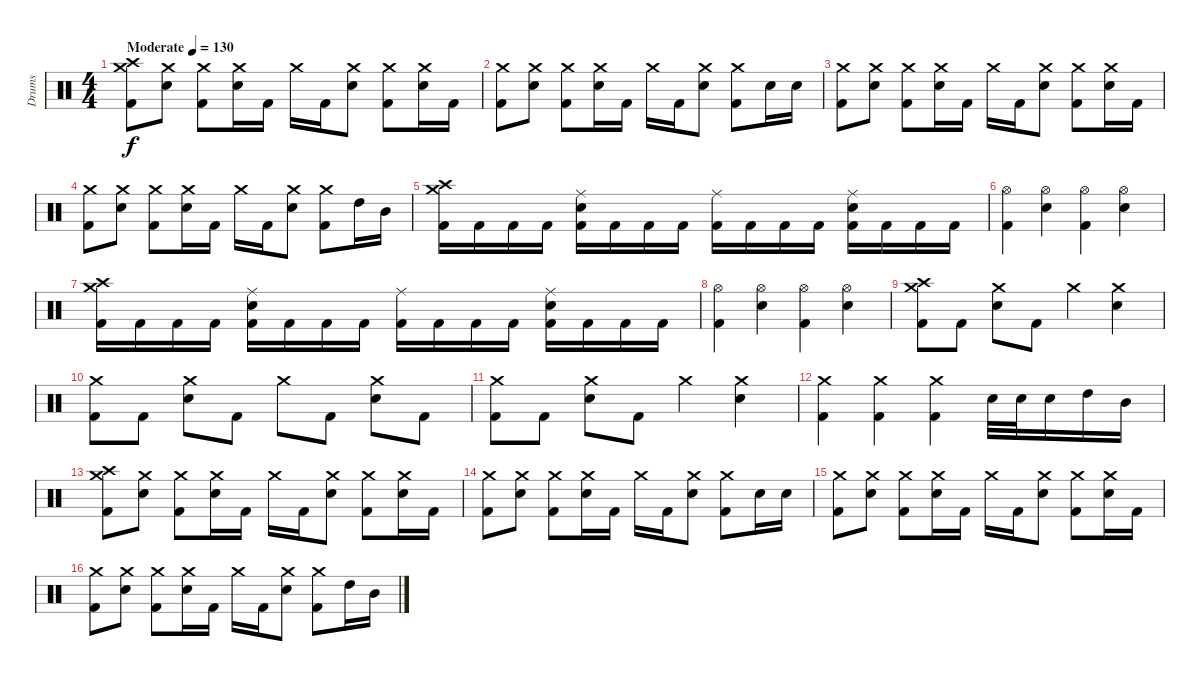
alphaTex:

\track ("Drums" "Drums") {instrument percussion}
\staff {score}
\articulation defaults
\ts (4 4)
\tempo (130 "Moderate")
\clef neutral
\ks c
("Kick (hit) 2" "Crash high (hit)" "Crash medium (hit)").8{dy f} ("Snare (hit) 2" "Crash medium (hit)").8 ("Kick (hit) 2" "Crash medium (hit)").8 ("Snare (hit) 2" "Crash medium (hit)").16 "Kick (hit) 2".16 "Crash medium (hit)".16 "Kick (hit) 2".16 ("Snare (hit) 2" "Crash medium (hit)").8 ("Kick (hit) 2" "Crash medium (hit)").8 ("Snare (hit) 2" "Crash medium (hit)").16 "Kick (hit) 2".16 |
("Kick (hit) 2" "Crash medium (hit)").8 ("Snare (hit) 2" "Crash medium (hit)").8 ("Kick (hit) 2" "Crash medium (hit)").8 ("Snare (hit) 2" "Crash medium (hit)").16 "Kick (hit) 2".16 "Crash medium (hit)".16 "Kick (hit) 2".16 ("Snare (hit) 2" "Crash medium (hit)").8 ("Kick (hit) 2" "Crash medium (hit)").8 "Snare (hit) 2".16 "Snare (hit) 2".16 |
("Kick (hit) 2" "Crash medium (hit)").8 ("Snare (hit) 2" "Crash medium (hit)").8 ("Kick (hit) 2" "Crash medium (hit)").8 ("Snare (hit) 2" "Crash medium (hit)").16 "Kick (hit) 2".16 "Crash medium (hit)".16 "Kick (hit) 2".16 ("Snare (hit) 2" "Crash medium (hit)").8 ("Kick (hit) 2" "Crash medium (hit)").8 ("Snare (hit) 2" "Crash medium (hit)").16 "Kick (hit) 2".16 |
("Kick (hit) 2" "Crash medium (hit)").8 ("Snare (hit) 2" "Crash medium (hit)").8 ("Kick (hit) 2" "Crash medium (hit)").8 ("Snare (hit) 2" "Crash medium (hit)").16 "Kick (hit) 2".16 "Crash medium (hit)".16 "Kick (hit) 2".16 ("Snare (hit) 2" "Crash medium (hit)").8 ("Kick (hit) 2" "Crash medium (hit)").8 "High Tom (hit)".16 "Mid Tom (hit)".16 |
("Kick (hit) 2" "Crash high (hit)" "Crash medium (hit)").16 "Kick (hit) 2".16 "Kick (hit) 2".16 "Kick (hit) 2".16 ("Kick (hit) 2" "Snare (hit) 2" "Ride (middle)").16 "Kick (hit) 2".16 "Kick (hit) 2".16 "Kick (hit) 2".16 ("Kick (hit) 2" "Ride (middle)").16 "Kick (hit) 2".16 "Kick (hit) 2".16 "Kick (hit) 2".16 ("Kick (hit) 2" "Snare (hit) 2" "Ride (middle)").16 "Kick (hit) 2".16 "Kick (hit) 2".16 "Kick (hit) 2".16 |
("Kick (hit) 2" "Hi-Hat (open)").4 ("Snare (hit) 2" "Hi-Hat (open)").4 ("Kick (hit) 2" "Hi-Hat (open)").4 ("Snare (hit) 2" "Hi-Hat (open)").4 |
("Kick (hit) 2" "Crash high (hit)" "Crash medium (hit)").16 "Kick (hit) 2".16 "Kick (hit) 2".16 "Kick (hit) 2".16 ("Kick (hit) 2" "Snare (hit) 2" "Ride (middle)").16 "Kick (hit) 2".16 "Kick (hit) 2".16 "Kick (hit) 2".16 ("Kick (hit) 2" "Ride (middle)").16 "Kick (hit) 2".16 "Kick (hit) 2".16 "Kick (hit) 2".16 ("Kick (hit) 2" "Snare (hit) 2" "Ride (middle)").16 "Kick (hit) 2".16 "Kick (hit) 2".16 "Kick (hit) 2".16 |
("Kick (hit) 2" "Hi-Hat (open)").4 ("Snare (hit) 2" "Hi-Hat (open)").4 ("Kick (hit) 2" "Hi-Hat (open)").4 ("Snare (hit) 2" "Hi-Hat (open)").4 |
("Kick (hit) 2" "Crash high (hit)" "Crash medium (hit)").8 "Kick (hit) 2".8 ("Snare (hit) 2" "Crash medium (hit)").8 "Kick (hit) 2".8 "Crash medium (hit)".4 ("Snare (hit) 2" "Crash medium (hit)").4 |
("Kick (hit) 2" "Crash medium (hit)").8 "Kick (hit) 2".8 ("Snare (hit) 2" "Crash medium (hit)").8 "Kick (hit) 2".8 "Crash medium (hit)".8 "Kick (hit) 2".8 ("Snare (hit) 2" "Crash medium (hit)").8 "Kick (hit) 2".8 |
("Kick (hit) 2" "Crash medium (hit)").8 "Kick (hit) 2".8 ("Snare (hit) 2" "Crash medium (hit)").8 "Kick (hit) 2".8 "Crash medium (hit)".4 ("Snare (hit) 2" "Crash medium (hit)").4 |
("Kick (hit) 2" "Crash medium (hit)").4 ("Kick (hit) 2" "Crash medium (hit)").4 ("Kick (hit) 2" "Crash medium (hit)").4 "Snare (hit) 2".32 "Snare (hit) 2".32 "Snare (hit) 2".16 "High Tom (hit)".16 "Mid Tom (hit)".16 |
("Kick (hit) 2" "Crash high (hit)" "Crash medium (hit)").8 ("Snare (hit) 2" "Crash medium (hit)").8 ("Kick (hit) 2" "Crash medium (hit)").8 ("Snare (hit) 2" "Crash medium (hit)").16 "Kick (hit) 2".16 "Crash medium (hit)".16 "Kick (hit) 2".16 ("Snare (hit) 2" "Crash medium (hit)").8 ("Kick (hit) 2" "Crash medium (hit)").8 ("Snare (hit) 2" "Crash medium (hit)").16 "Kick (hit) 2".16 |
("Kick (hit) 2" "Crash medium (hit)").8 ("Snare (hit) 2" "Crash medium (hit)").8 ("Kick (hit) 2" "Crash medium (hit)").8 ("Snare (hit) 2" "Crash medium (hit)").16 "Kick (hit) 2".16 "Crash medium (hit)".16 "Kick (hit) 2".16 ("Snare (hit) 2" "Crash medium (hit)").8 ("Kick (hit) 2" "Crash medium (hit)").8 "Snare (hit) 2".16 "Snare (hit) 2".16 |
("Kick (hit) 2" "Crash medium (hit)").8 ("Snare (hit) 2" "Crash medium (hit)").8 ("Kick (hit) 2" "Crash medium (hit)").8 ("Snare (hit) 2" "Crash medium (hit)").16 "Kick (hit) 2".16 "Crash medium (hit)".16 "Kick (hit) 2".16 ("Snare (hit) 2" "Crash medium (hit)").8 ("Kick (hit) 2" "Crash medium (hit)").8 ("Snare (hit) 2" "Crash medium (hit)").16 "Kick (hit) 2".16 |
("Kick (hit) 2" "Crash medium (hit)").8 ("Snare (hit) 2" "Crash medium (hit)").8 ("Kick (hit) 2" "Crash medium (hit)").8 ("Snare (hit) 2" "Crash medium (hit)").16 "Kick (hit) 2".16 "Crash medium (hit)".16 "Kick (hit) 2".16 ("Snare (hit) 2" "Crash medium (hit)").8 ("Kick (hit) 2" "Crash medium (hit)").8 "High Tom (hit)".16 "Mid Tom (hit)".16
